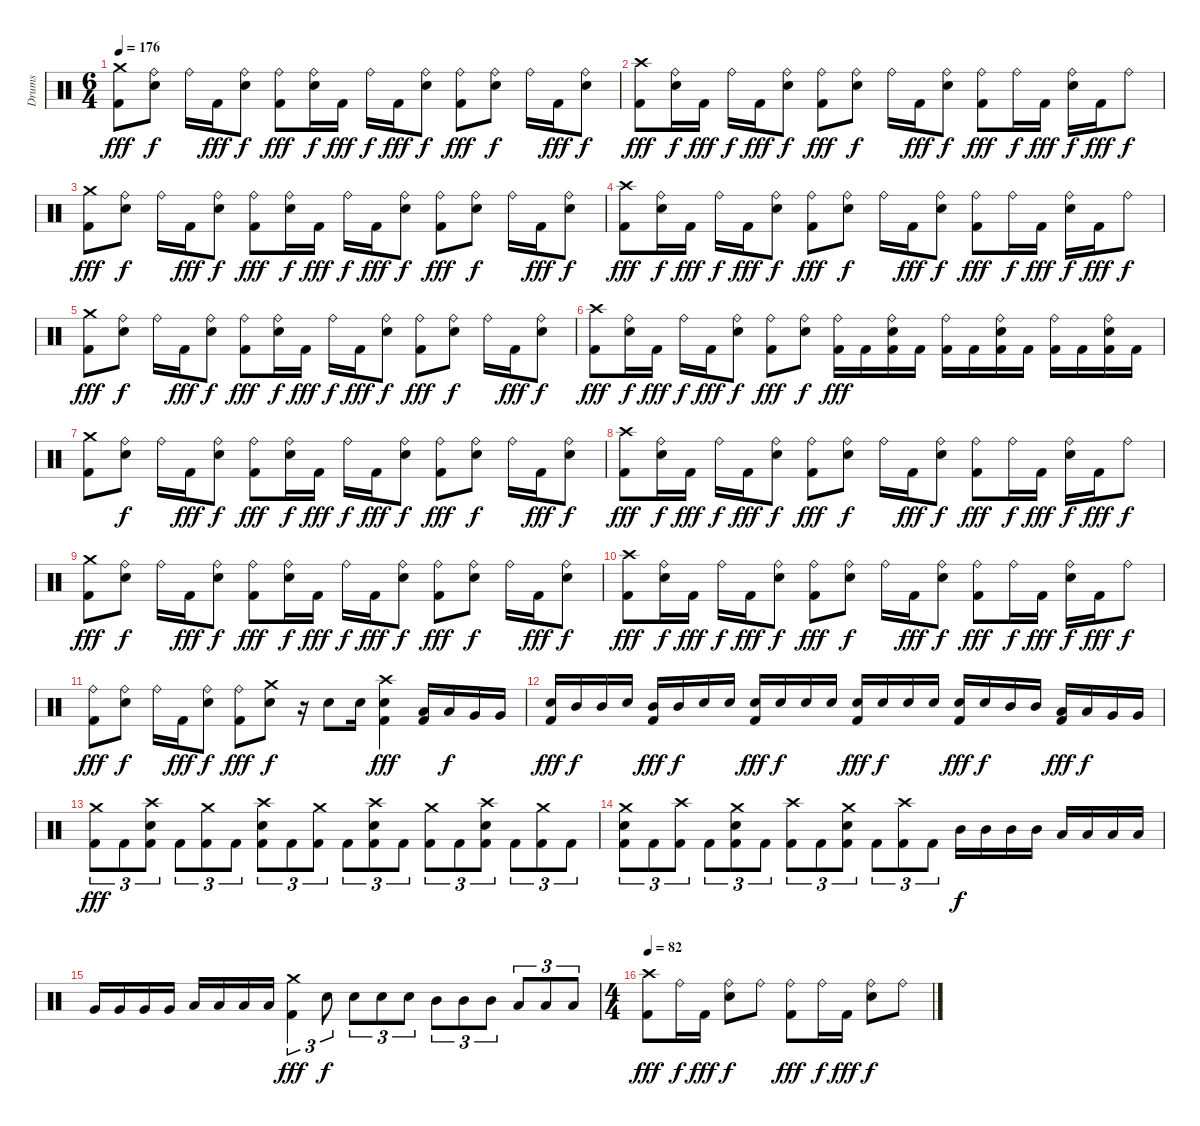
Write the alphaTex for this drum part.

\track ("Drums" "Drums") {instrument percussion}
\staff {score}
\articulation defaults
\ts (6 4)
\tempo 176
\clef neutral
\ks c
("Crash medium (hit)" "Kick (hit) 2").8{dy fff} ("Ride (bell)" "Snare (hit) 2").8{dy f} "Ride (bell)".16 "Kick (hit) 2".16{dy fff} ("Ride (bell)" "Snare (hit) 2").8{dy f} ("Ride (bell)" "Kick (hit) 2").8{dy fff} ("Ride (bell)" "Snare (hit) 2").16{dy f} "Kick (hit) 2".16{dy fff} "Ride (bell)".16{dy f} "Kick (hit) 2".16{dy fff} ("Ride (bell)" "Snare (hit) 2").8{dy f} ("Ride (bell)" "Kick (hit) 2").8{dy fff} ("Ride (bell)" "Snare (hit) 2").8{dy f} "Ride (bell)".16 "Kick (hit) 2".16{dy fff} ("Ride (bell)" "Snare (hit) 2").8{dy f} |
("Crash high (hit)" "Kick (hit) 2").8{dy fff} ("Ride (bell)" "Snare (hit) 2").16{dy f} "Kick (hit) 2".16{dy fff} "Ride (bell)".16{dy f} "Kick (hit) 2".16{dy fff} ("Ride (bell)" "Snare (hit) 2").8{dy f} ("Ride (bell)" "Kick (hit) 2").8{dy fff} ("Ride (bell)" "Snare (hit) 2").8{dy f} "Ride (bell)".16 "Kick (hit) 2".16{dy fff} ("Ride (bell)" "Snare (hit) 2").8{dy f} ("Ride (bell)" "Kick (hit) 2").8{dy fff} "Ride (bell)".16{dy f} "Kick (hit) 2".16{dy fff} ("Ride (bell)" "Snare (hit) 2").16{dy f} "Kick (hit) 2".16{dy fff} "Ride (bell)".8{dy f} |
("Crash medium (hit)" "Kick (hit) 2").8{dy fff} ("Ride (bell)" "Snare (hit) 2").8{dy f} "Ride (bell)".16 "Kick (hit) 2".16{dy fff} ("Ride (bell)" "Snare (hit) 2").8{dy f} ("Ride (bell)" "Kick (hit) 2").8{dy fff} ("Ride (bell)" "Snare (hit) 2").16{dy f} "Kick (hit) 2".16{dy fff} "Ride (bell)".16{dy f} "Kick (hit) 2".16{dy fff} ("Ride (bell)" "Snare (hit) 2").8{dy f} ("Ride (bell)" "Kick (hit) 2").8{dy fff} ("Ride (bell)" "Snare (hit) 2").8{dy f} "Ride (bell)".16 "Kick (hit) 2".16{dy fff} ("Ride (bell)" "Snare (hit) 2").8{dy f} |
("Crash high (hit)" "Kick (hit) 2").8{dy fff} ("Ride (bell)" "Snare (hit) 2").16{dy f} "Kick (hit) 2".16{dy fff} "Ride (bell)".16{dy f} "Kick (hit) 2".16{dy fff} ("Ride (bell)" "Snare (hit) 2").8{dy f} ("Ride (bell)" "Kick (hit) 2").8{dy fff} ("Ride (bell)" "Snare (hit) 2").8{dy f} "Ride (bell)".16 "Kick (hit) 2".16{dy fff} ("Ride (bell)" "Snare (hit) 2").8{dy f} ("Ride (bell)" "Kick (hit) 2").8{dy fff} "Ride (bell)".16{dy f} "Kick (hit) 2".16{dy fff} ("Ride (bell)" "Snare (hit) 2").16{dy f} "Kick (hit) 2".16{dy fff} "Ride (bell)".8{dy f} |
("Crash medium (hit)" "Kick (hit) 2").8{dy fff} ("Ride (bell)" "Snare (hit) 2").8{dy f} "Ride (bell)".16 "Kick (hit) 2".16{dy fff} ("Ride (bell)" "Snare (hit) 2").8{dy f} ("Ride (bell)" "Kick (hit) 2").8{dy fff} ("Ride (bell)" "Snare (hit) 2").16{dy f} "Kick (hit) 2".16{dy fff} "Ride (bell)".16{dy f} "Kick (hit) 2".16{dy fff} ("Ride (bell)" "Snare (hit) 2").8{dy f} ("Ride (bell)" "Kick (hit) 2").8{dy fff} ("Ride (bell)" "Snare (hit) 2").8{dy f} "Ride (bell)".16 "Kick (hit) 2".16{dy fff} ("Ride (bell)" "Snare (hit) 2").8{dy f} |
("Crash high (hit)" "Kick (hit) 2").8{dy fff} ("Ride (bell)" "Snare (hit) 2").16{dy f} "Kick (hit) 2".16{dy fff} "Ride (bell)".16{dy f} "Kick (hit) 2".16{dy fff} ("Ride (bell)" "Snare (hit) 2").8{dy f} ("Ride (bell)" "Kick (hit) 2").8{dy fff} ("Ride (bell)" "Snare (hit) 2").8{dy f} ("Ride (bell)" "Kick (hit) 2").16{dy fff} "Kick (hit) 2".16 ("Ride (bell)" "Snare (hit) 2" "Kick (hit) 2").16 "Kick (hit) 2".16 ("Ride (bell)" "Kick (hit) 2").16 "Kick (hit) 2".16 ("Ride (bell)" "Snare (hit) 2" "Kick (hit) 2").16 "Kick (hit) 2".16 ("Ride (bell)" "Kick (hit) 2").16 "Kick (hit) 2".16 ("Ride (bell)" "Snare (hit) 2" "Kick (hit) 2").16 "Kick (hit) 2".16 |
("Crash medium (hit)" "Kick (hit) 2").8 ("Ride (bell)" "Snare (hit) 2").8{dy f} "Ride (bell)".16 "Kick (hit) 2".16{dy fff} ("Ride (bell)" "Snare (hit) 2").8{dy f} ("Ride (bell)" "Kick (hit) 2").8{dy fff} ("Ride (bell)" "Snare (hit) 2").16{dy f} "Kick (hit) 2".16{dy fff} "Ride (bell)".16{dy f} "Kick (hit) 2".16{dy fff} ("Ride (bell)" "Snare (hit) 2").8{dy f} ("Ride (bell)" "Kick (hit) 2").8{dy fff} ("Ride (bell)" "Snare (hit) 2").8{dy f} "Ride (bell)".16 "Kick (hit) 2".16{dy fff} ("Ride (bell)" "Snare (hit) 2").8{dy f} |
("Crash high (hit)" "Kick (hit) 2").8{dy fff} ("Ride (bell)" "Snare (hit) 2").16{dy f} "Kick (hit) 2".16{dy fff} "Ride (bell)".16{dy f} "Kick (hit) 2".16{dy fff} ("Ride (bell)" "Snare (hit) 2").8{dy f} ("Ride (bell)" "Kick (hit) 2").8{dy fff} ("Ride (bell)" "Snare (hit) 2").8{dy f} "Ride (bell)".16 "Kick (hit) 2".16{dy fff} ("Ride (bell)" "Snare (hit) 2").8{dy f} ("Ride (bell)" "Kick (hit) 2").8{dy fff} "Ride (bell)".16{dy f} "Kick (hit) 2".16{dy fff} ("Ride (bell)" "Snare (hit) 2").16{dy f} "Kick (hit) 2".16{dy fff} "Ride (bell)".8{dy f} |
("Crash medium (hit)" "Kick (hit) 2").8{dy fff} ("Ride (bell)" "Snare (hit) 2").8{dy f} "Ride (bell)".16 "Kick (hit) 2".16{dy fff} ("Ride (bell)" "Snare (hit) 2").8{dy f} ("Ride (bell)" "Kick (hit) 2").8{dy fff} ("Ride (bell)" "Snare (hit) 2").16{dy f} "Kick (hit) 2".16{dy fff} "Ride (bell)".16{dy f} "Kick (hit) 2".16{dy fff} ("Ride (bell)" "Snare (hit) 2").8{dy f} ("Ride (bell)" "Kick (hit) 2").8{dy fff} ("Ride (bell)" "Snare (hit) 2").8{dy f} "Ride (bell)".16 "Kick (hit) 2".16{dy fff} ("Ride (bell)" "Snare (hit) 2").8{dy f} |
("Crash high (hit)" "Kick (hit) 2").8{dy fff} ("Ride (bell)" "Snare (hit) 2").16{dy f} "Kick (hit) 2".16{dy fff} "Ride (bell)".16{dy f} "Kick (hit) 2".16{dy fff} ("Ride (bell)" "Snare (hit) 2").8{dy f} ("Ride (bell)" "Kick (hit) 2").8{dy fff} ("Ride (bell)" "Snare (hit) 2").8{dy f} "Ride (bell)".16 "Kick (hit) 2".16{dy fff} ("Ride (bell)" "Snare (hit) 2").8{dy f} ("Ride (bell)" "Kick (hit) 2").8{dy fff} "Ride (bell)".16{dy f} "Kick (hit) 2".16{dy fff} ("Ride (bell)" "Snare (hit) 2").16{dy f} "Kick (hit) 2".16{dy fff} "Ride (bell)".8{dy f} |
("Ride (bell)" "Kick (hit) 2").8{dy fff} ("Ride (bell)" "Snare (hit) 2").8{dy f} "Ride (bell)".16 "Kick (hit) 2".16{dy fff} ("Ride (bell)" "Snare (hit) 2").8{dy f} ("Ride (bell)" "Kick (hit) 2").8{dy fff} ("Crash medium (hit)" "Snare (hit) 2").8{dy f} r.16 "Snare (hit) 2".8 "Snare (hit) 2".16 ("Crash high (hit)" "Snare (hit) 2" "Kick (hit) 2").4{dy fff} ("Low Tom (hit)" "Kick (hit) 2").16 "Low Tom (hit)".16{dy f} "Very Low Tom (hit)".16 "Very Low Tom (hit)".16 |
("Snare (hit) 2" "Kick (hit) 2").16{dy fff} "Mid Tom (hit)".16{dy f} "Mid Tom (hit)".16 "Snare (hit) 2".16 ("Mid Tom (hit)" "Kick (hit) 2").16{dy fff} "Mid Tom (hit)".16{dy f} "Snare (hit) 2".16 "Snare (hit) 2".16 ("Snare (hit) 2" "Kick (hit) 2").16{dy fff} "Snare (hit) 2".16{dy f} "Snare (hit) 2".16 "Snare (hit) 2".16 ("Snare (hit) 2" "Kick (hit) 2").16{dy fff} "Snare (hit) 2".16{dy f} "Snare (hit) 2".16 "Snare (hit) 2".16 ("Snare (hit) 2" "Kick (hit) 2").16{dy fff} "Snare (hit) 2".16{dy f} "Mid Tom (hit)".16 "Mid Tom (hit)".16 ("Low Tom (hit)" "Kick (hit) 2").16{dy fff} "Low Tom (hit)".16{dy f} "Very Low Tom (hit)".16 "Very Low Tom (hit)".16 |
("Crash medium (hit)" "Kick (hit) 2").8{tu (3 2) dy fff} "Kick (hit) 2".8{tu (3 2)} ("Crash high (hit)" "Snare (hit) 2" "Kick (hit) 2").8{tu (3 2)} "Kick (hit) 2".8{tu (3 2)} ("Crash medium (hit)" "Kick (hit) 2").8{tu (3 2)} "Kick (hit) 2".8{tu (3 2)} ("Crash high (hit)" "Snare (hit) 2" "Kick (hit) 2").8{tu (3 2)} "Kick (hit) 2".8{tu (3 2)} ("Crash medium (hit)" "Kick (hit) 2").8{tu (3 2)} "Kick (hit) 2".8{tu (3 2)} ("Crash high (hit)" "Snare (hit) 2" "Kick (hit) 2").8{tu (3 2)} "Kick (hit) 2".8{tu (3 2)} ("Crash medium (hit)" "Kick (hit) 2").8{tu (3 2)} "Kick (hit) 2".8{tu (3 2)} ("Crash high (hit)" "Snare (hit) 2" "Kick (hit) 2").8{tu (3 2)} "Kick (hit) 2".8{tu (3 2)} ("Crash medium (hit)" "Kick (hit) 2").8{tu (3 2)} "Kick (hit) 2".8{tu (3 2)} |
("Crash medium (hit)" "Snare (hit) 2" "Kick (hit) 2").8{tu (3 2)} "Kick (hit) 2".8{tu (3 2)} ("Crash high (hit)" "Kick (hit) 2").8{tu (3 2)} "Kick (hit) 2".8{tu (3 2)} ("Crash medium (hit)" "Snare (hit) 2" "Kick (hit) 2").8{tu (3 2)} "Kick (hit) 2".8{tu (3 2)} ("Crash high (hit)" "Kick (hit) 2").8{tu (3 2)} "Kick (hit) 2".8{tu (3 2)} ("Crash medium (hit)" "Snare (hit) 2" "Kick (hit) 2").8{tu (3 2)} "Kick (hit) 2".8{tu (3 2)} ("Crash high (hit)" "Kick (hit) 2").8{tu (3 2)} "Kick (hit) 2".8{tu (3 2)} "Mid Tom (hit)".16{dy f} "Mid Tom (hit)".16 "Mid Tom (hit)".16 "Mid Tom (hit)".16 "Low Tom (hit)".16 "Low Tom (hit)".16 "Low Tom (hit)".16 "Low Tom (hit)".16 |
"Very Low Tom (hit)".16 "Very Low Tom (hit)".16 "Very Low Tom (hit)".16 "Very Low Tom (hit)".16 "Low Floor Tom (hit)".16 "Low Floor Tom (hit)".16 "Low Floor Tom (hit)".16 "Low Floor Tom (hit)".16 ("Crash medium (hit)" "Kick (hit) 2").4{tu (3 2) dy fff} "Snare (hit) 2".8{tu (3 2) dy f} "Snare (hit) 2".8{tu (3 2)} "Snare (hit) 2".8{tu (3 2)} "Snare (hit) 2".8{tu (3 2)} "Mid Tom (hit)".8{tu (3 2)} "Mid Tom (hit)".8{tu (3 2)} "Mid Tom (hit)".8{tu (3 2)} "Low Tom (hit)".8{tu (3 2)} "Low Tom (hit)".8{tu (3 2)} "Low Tom (hit)".8{tu (3 2)} |
\ts (4 4)
\tempo 82
("Crash high (hit)" "Kick (hit) 2").8{dy fff} "Ride (bell)".16{dy f} "Kick (hit) 2".16{dy fff} ("Ride (bell)" "Snare (hit) 2").8{dy f} "Ride (bell)".8 ("Ride (bell)" "Kick (hit) 2").8{dy fff} "Ride (bell)".16{dy f} "Kick (hit) 2".16{dy fff} ("Ride (bell)" "Snare (hit) 2").8{dy f} "Ride (bell)".8
